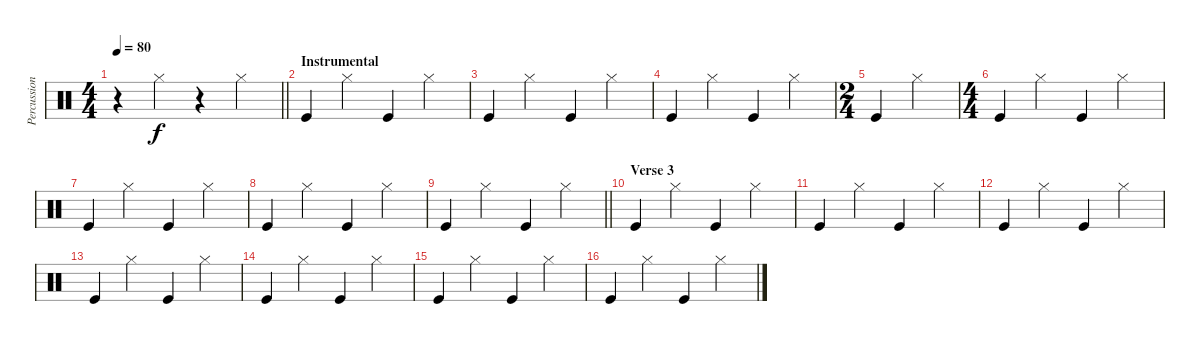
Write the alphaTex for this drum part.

\track ("Percussion" "Percussion") {instrument percussion}
\staff {score}
\articulation defaults
\ts (4 4)
\tempo 80
\clef neutral
\barLineRight lightlight
\ks c
r.4{dy f} "Hi-Hat (closed)".4 r.4 "Hi-Hat (closed)".4 |
\section ("" "Instrumental")
"Kick (hit)".4 "Hi-Hat (closed)".4 "Kick (hit)".4 "Hi-Hat (closed)".4 |
"Kick (hit)".4 "Hi-Hat (closed)".4 "Kick (hit)".4 "Hi-Hat (closed)".4 |
"Kick (hit)".4 "Hi-Hat (closed)".4 "Kick (hit)".4 "Hi-Hat (closed)".4 |
\ts (2 4)
"Kick (hit)".4 "Hi-Hat (closed)".4 |
\ts (4 4)
"Kick (hit)".4 "Hi-Hat (closed)".4 "Kick (hit)".4 "Hi-Hat (closed)".4 |
"Kick (hit)".4 "Hi-Hat (closed)".4 "Kick (hit)".4 "Hi-Hat (closed)".4 |
"Kick (hit)".4 "Hi-Hat (closed)".4 "Kick (hit)".4 "Hi-Hat (closed)".4 |
\barLineRight lightlight "Kick (hit)".4 "Hi-Hat (closed)".4 "Kick (hit)".4 "Hi-Hat (closed)".4
|
\section ("" "Verse 3")
"Kick (hit)".4 "Hi-Hat (closed)".4 "Kick (hit)".4 "Hi-Hat (closed)".4 |
"Kick (hit)".4 "Hi-Hat (closed)".4 "Kick (hit)".4 "Hi-Hat (closed)".4 |
"Kick (hit)".4 "Hi-Hat (closed)".4 "Kick (hit)".4 "Hi-Hat (closed)".4 |
"Kick (hit)".4 "Hi-Hat (closed)".4 "Kick (hit)".4 "Hi-Hat (closed)".4 |
"Kick (hit)".4 "Hi-Hat (closed)".4 "Kick (hit)".4 "Hi-Hat (closed)".4 |
"Kick (hit)".4 "Hi-Hat (closed)".4 "Kick (hit)".4 "Hi-Hat (closed)".4 |
"Kick (hit)".4 "Hi-Hat (closed)".4 "Kick (hit)".4 "Hi-Hat (closed)".4
